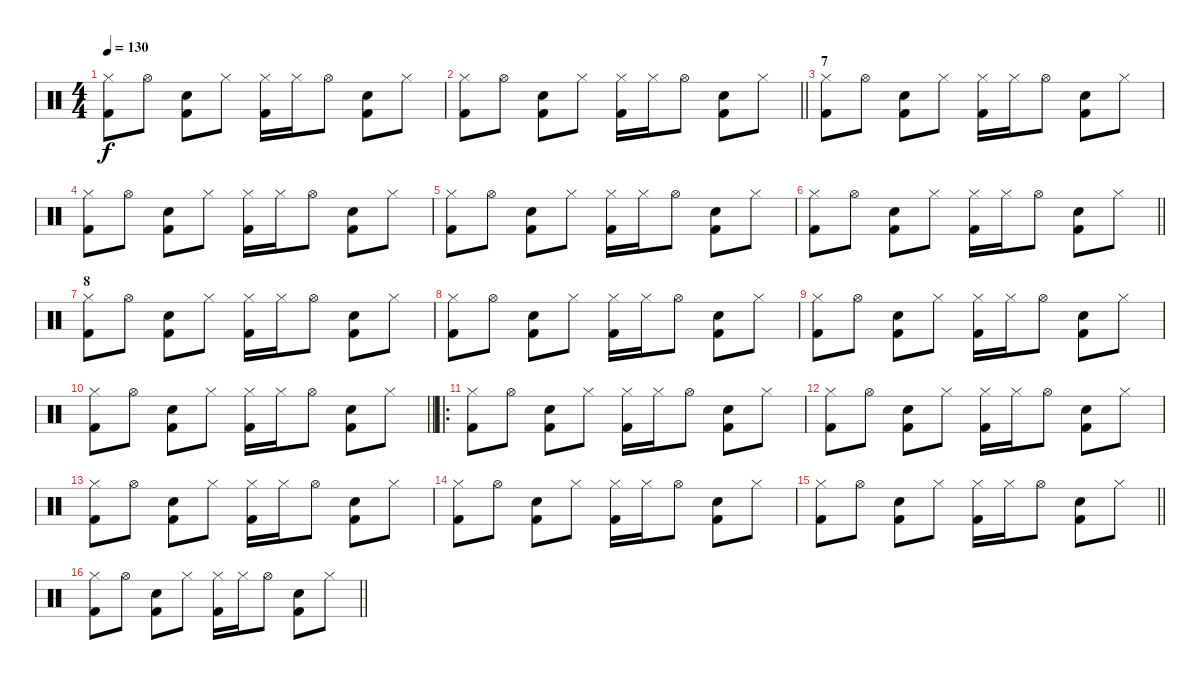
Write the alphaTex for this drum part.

\track "" {instrument percussion}
\staff {score}
\articulation defaults
\ts (4 4)
\tempo 130
\clef neutral
\ks c
("Hi-Hat (closed)" "Kick (hit) 2").8{dy f} "Hi-Hat (open)".8 ("Electric Snare (hit)" "Kick (hit) 2").8 "Hi-Hat (closed)".8 ("Hi-Hat (closed)" "Kick (hit) 2").16 "Hi-Hat (closed)".16 "Hi-Hat (open)".8 ("Electric Snare (hit)" "Kick (hit) 2").8 "Hi-Hat (closed)".8 |
\barLineRight lightlight
("Hi-Hat (closed)" "Kick (hit) 2").8 "Hi-Hat (open)".8 ("Electric Snare (hit)" "Kick (hit) 2").8 "Hi-Hat (closed)".8 ("Hi-Hat (closed)" "Kick (hit) 2").16 "Hi-Hat (closed)".16 "Hi-Hat (open)".8 ("Electric Snare (hit)" "Kick (hit) 2").8 "Hi-Hat (closed)".8 |
\section ("" "7")
("Hi-Hat (closed)" "Kick (hit) 2").8 "Hi-Hat (open)".8 ("Electric Snare (hit)" "Kick (hit) 2").8 "Hi-Hat (closed)".8 ("Hi-Hat (closed)" "Kick (hit) 2").16 "Hi-Hat (closed)".16 "Hi-Hat (open)".8 ("Electric Snare (hit)" "Kick (hit) 2").8 "Hi-Hat (closed)".8 |
("Hi-Hat (closed)" "Kick (hit) 2").8 "Hi-Hat (open)".8 ("Electric Snare (hit)" "Kick (hit) 2").8 "Hi-Hat (closed)".8 ("Hi-Hat (closed)" "Kick (hit) 2").16 "Hi-Hat (closed)".16 "Hi-Hat (open)".8 ("Electric Snare (hit)" "Kick (hit) 2").8 "Hi-Hat (closed)".8 |
("Hi-Hat (closed)" "Kick (hit) 2").8 "Hi-Hat (open)".8 ("Electric Snare (hit)" "Kick (hit) 2").8 "Hi-Hat (closed)".8 ("Hi-Hat (closed)" "Kick (hit) 2").16 "Hi-Hat (closed)".16 "Hi-Hat (open)".8 ("Electric Snare (hit)" "Kick (hit) 2").8 "Hi-Hat (closed)".8 |
\barLineRight lightlight
("Hi-Hat (closed)" "Kick (hit) 2").8 "Hi-Hat (open)".8 ("Electric Snare (hit)" "Kick (hit) 2").8 "Hi-Hat (closed)".8 ("Hi-Hat (closed)" "Kick (hit) 2").16 "Hi-Hat (closed)".16 "Hi-Hat (open)".8 ("Electric Snare (hit)" "Kick (hit) 2").8 "Hi-Hat (closed)".8 |
\section ("" "8")
("Hi-Hat (closed)" "Kick (hit) 2").8 "Hi-Hat (open)".8 ("Electric Snare (hit)" "Kick (hit) 2").8 "Hi-Hat (closed)".8 ("Hi-Hat (closed)" "Kick (hit) 2").16 "Hi-Hat (closed)".16 "Hi-Hat (open)".8 ("Electric Snare (hit)" "Kick (hit) 2").8 "Hi-Hat (closed)".8 |
("Hi-Hat (closed)" "Kick (hit) 2").8 "Hi-Hat (open)".8 ("Electric Snare (hit)" "Kick (hit) 2").8 "Hi-Hat (closed)".8 ("Hi-Hat (closed)" "Kick (hit) 2").16 "Hi-Hat (closed)".16 "Hi-Hat (open)".8 ("Electric Snare (hit)" "Kick (hit) 2").8 "Hi-Hat (closed)".8 |
("Hi-Hat (closed)" "Kick (hit) 2").8 "Hi-Hat (open)".8 ("Electric Snare (hit)" "Kick (hit) 2").8 "Hi-Hat (closed)".8 ("Hi-Hat (closed)" "Kick (hit) 2").16 "Hi-Hat (closed)".16 "Hi-Hat (open)".8 ("Electric Snare (hit)" "Kick (hit) 2").8 "Hi-Hat (closed)".8 |
\barLineRight lightlight
("Hi-Hat (closed)" "Kick (hit) 2").8 "Hi-Hat (open)".8 ("Electric Snare (hit)" "Kick (hit) 2").8 "Hi-Hat (closed)".8 ("Hi-Hat (closed)" "Kick (hit) 2").16 "Hi-Hat (closed)".16 "Hi-Hat (open)".8 ("Electric Snare (hit)" "Kick (hit) 2").8 "Hi-Hat (closed)".8 |
\ro
\section ("" "")
("Hi-Hat (closed)" "Kick (hit) 2").8 "Hi-Hat (open)".8 ("Electric Snare (hit)" "Kick (hit) 2").8 "Hi-Hat (closed)".8 ("Hi-Hat (closed)" "Kick (hit) 2").16 "Hi-Hat (closed)".16 "Hi-Hat (open)".8 ("Electric Snare (hit)" "Kick (hit) 2").8 "Hi-Hat (closed)".8 |
("Hi-Hat (closed)" "Kick (hit) 2").8 "Hi-Hat (open)".8 ("Electric Snare (hit)" "Kick (hit) 2").8 "Hi-Hat (closed)".8 ("Hi-Hat (closed)" "Kick (hit) 2").16 "Hi-Hat (closed)".16 "Hi-Hat (open)".8 ("Electric Snare (hit)" "Kick (hit) 2").8 "Hi-Hat (closed)".8 |
("Hi-Hat (closed)" "Kick (hit) 2").8 "Hi-Hat (open)".8 ("Electric Snare (hit)" "Kick (hit) 2").8 "Hi-Hat (closed)".8 ("Hi-Hat (closed)" "Kick (hit) 2").16 "Hi-Hat (closed)".16 "Hi-Hat (open)".8 ("Electric Snare (hit)" "Kick (hit) 2").8 "Hi-Hat (closed)".8 |
("Hi-Hat (closed)" "Kick (hit) 2").8 "Hi-Hat (open)".8 ("Electric Snare (hit)" "Kick (hit) 2").8 "Hi-Hat (closed)".8 ("Hi-Hat (closed)" "Kick (hit) 2").16 "Hi-Hat (closed)".16 "Hi-Hat (open)".8 ("Electric Snare (hit)" "Kick (hit) 2").8 "Hi-Hat (closed)".8 |
\barLineRight lightlight
("Hi-Hat (closed)" "Kick (hit) 2").8 "Hi-Hat (open)".8 ("Electric Snare (hit)" "Kick (hit) 2").8 "Hi-Hat (closed)".8 ("Hi-Hat (closed)" "Kick (hit) 2").16 "Hi-Hat (closed)".16 "Hi-Hat (open)".8 ("Electric Snare (hit)" "Kick (hit) 2").8 "Hi-Hat (closed)".8 |
\barLineRight lightlight
("Hi-Hat (closed)" "Kick (hit) 2").8 "Hi-Hat (open)".8 ("Electric Snare (hit)" "Kick (hit) 2").8 "Hi-Hat (closed)".8 ("Hi-Hat (closed)" "Kick (hit) 2").16 "Hi-Hat (closed)".16 "Hi-Hat (open)".8 ("Electric Snare (hit)" "Kick (hit) 2").8 "Hi-Hat (closed)".8
